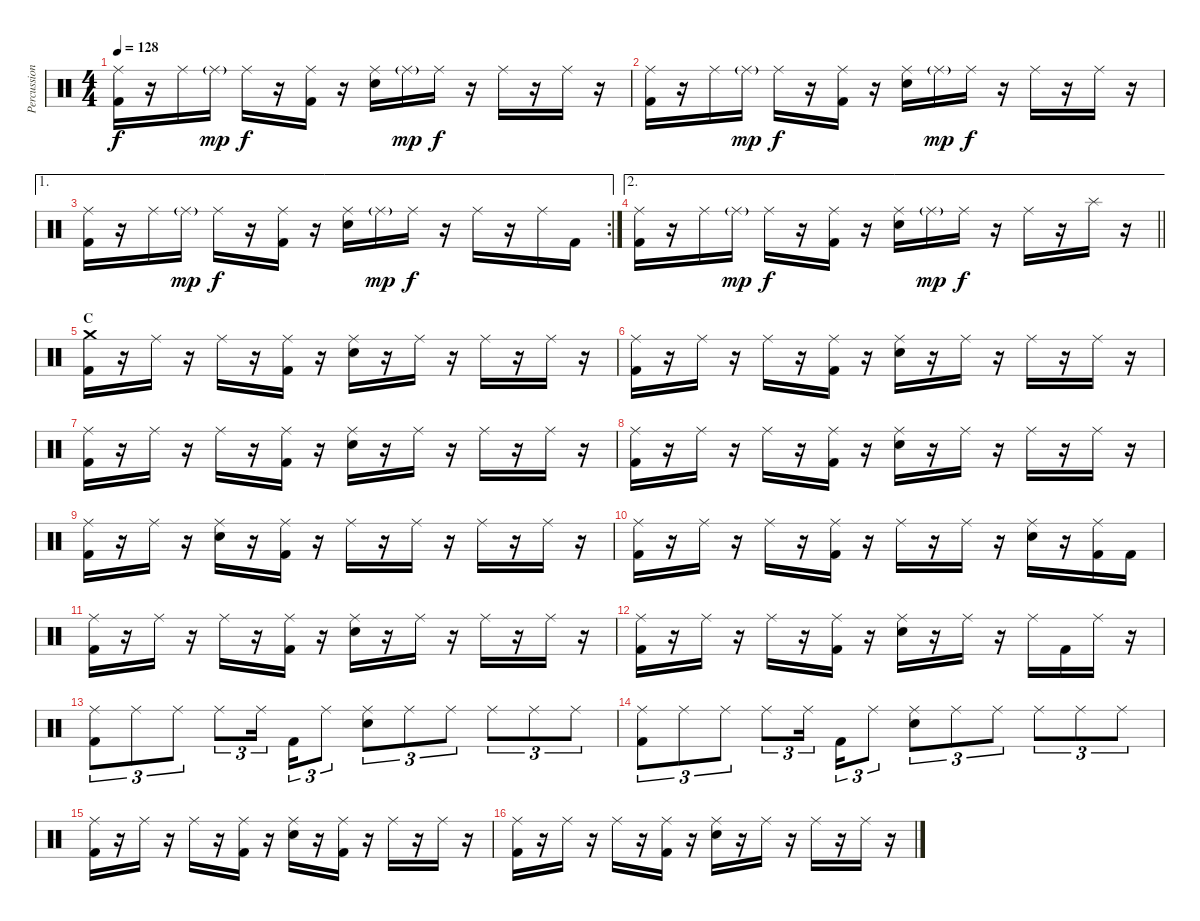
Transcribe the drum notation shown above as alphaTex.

\track ("Percussion" "Percussion") {instrument percussion}
\staff {score}
\articulation defaults
\ts (4 4)
\tempo 128
\clef neutral
\ks c
("Ride (middle)" "Kick (hit) 2").16{dy f} r.16 "Ride (middle)".16 "Ride (middle)"{g}.16{dy mp} "Ride (middle)".16{dy f} r.16 ("Ride (middle)" "Kick (hit) 2").16 r.16 ("Ride (middle)" "Snare (hit) 2").16 "Ride (middle)"{g}.16{dy mp} "Ride (middle)".16{dy f} r.16 "Ride (middle)".16 r.16 "Ride (middle)".16 r.16 |
("Ride (middle)" "Kick (hit) 2").16 r.16 "Ride (middle)".16 "Ride (middle)"{g}.16{dy mp} "Ride (middle)".16{dy f} r.16 ("Ride (middle)" "Kick (hit) 2").16 r.16 ("Ride (middle)" "Snare (hit) 2").16 "Ride (middle)"{g}.16{dy mp} "Ride (middle)".16{dy f} r.16 "Ride (middle)".16 r.16 "Ride (middle)".16 r.16 |
\ae 1
\rc 2
("Ride (middle)" "Kick (hit) 2").16 r.16 "Ride (middle)".16 "Ride (middle)"{g}.16{dy mp} "Ride (middle)".16{dy f} r.16 ("Ride (middle)" "Kick (hit) 2").16 r.16 ("Ride (middle)" "Snare (hit) 2").16 "Ride (middle)"{g}.16{dy mp} "Ride (middle)".16{dy f} r.16 "Ride (middle)".16 r.16 "Ride (middle)".16 "Kick (hit) 2".16 |
\ae 2
\barLineRight lightlight
("Ride (middle)" "Kick (hit) 2").16 r.16 "Ride (middle)".16 "Ride (middle)"{g}.16{dy mp} "Ride (middle)".16{dy f} r.16 ("Ride (middle)" "Kick (hit) 2").16 r.16 ("Ride (middle)" "Snare (hit) 2").16 "Ride (middle)"{g}.16{dy mp} "Ride (middle)".16{dy f} r.16 "Ride (middle)".16 r.16 "Splash (hit)".16 r.16 |
\section ("" "C")
("Crash medium (hit)" "Kick (hit) 2").16 r.16 "Ride (middle)".16 r.16 "Ride (middle)".16 r.16 ("Ride (middle)" "Kick (hit) 2").16 r.16 ("Ride (middle)" "Snare (hit) 2").16 r.16 "Ride (middle)".16 r.16 "Ride (middle)".16 r.16 "Ride (middle)".16 r.16 |
("Ride (middle)" "Kick (hit) 2").16 r.16 "Ride (middle)".16 r.16 "Ride (middle)".16 r.16 ("Ride (middle)" "Kick (hit) 2").16 r.16 ("Ride (middle)" "Snare (hit) 2").16 r.16 "Ride (middle)".16 r.16 "Ride (middle)".16 r.16 "Ride (middle)".16 r.16 |
("Ride (middle)" "Kick (hit) 2").16 r.16 "Ride (middle)".16 r.16 "Ride (middle)".16 r.16 ("Ride (middle)" "Kick (hit) 2").16 r.16 ("Ride (middle)" "Snare (hit) 2").16 r.16 "Ride (middle)".16 r.16 "Ride (middle)".16 r.16 "Ride (middle)".16 r.16 |
("Ride (middle)" "Kick (hit) 2").16 r.16 "Ride (middle)".16 r.16 "Ride (middle)".16 r.16 ("Ride (middle)" "Kick (hit) 2").16 r.16 ("Ride (middle)" "Snare (hit) 2").16 r.16 "Ride (middle)".16 r.16 "Ride (middle)".16 r.16 "Ride (middle)".16 r.16 |
("Ride (middle)" "Kick (hit) 2").16 r.16 "Ride (middle)".16 r.16 ("Ride (middle)" "Snare (hit) 2").16 r.16 ("Ride (middle)" "Kick (hit) 2").16 r.16 "Ride (middle)".16 r.16 "Ride (middle)".16 r.16 "Ride (middle)".16 r.16 "Ride (middle)".16 r.16 |
("Ride (middle)" "Kick (hit) 2").16 r.16 "Ride (middle)".16 r.16 "Ride (middle)".16 r.16 ("Ride (middle)" "Kick (hit) 2").16 r.16 "Ride (middle)".16 r.16 "Ride (middle)".16 r.16 ("Ride (middle)" "Snare (hit) 2").16 r.16 ("Ride (middle)" "Kick (hit) 2").16 "Kick (hit) 2".16 |
("Ride (middle)" "Kick (hit) 2").16 r.16 "Ride (middle)".16 r.16 "Ride (middle)".16 r.16 ("Ride (middle)" "Kick (hit) 2").16 r.16 ("Ride (middle)" "Snare (hit) 2").16 r.16 "Ride (middle)".16 r.16 "Ride (middle)".16 r.16 "Ride (middle)".16 r.16 |
("Ride (middle)" "Kick (hit) 2").16 r.16 "Ride (middle)".16 r.16 "Ride (middle)".16 r.16 ("Ride (middle)" "Kick (hit) 2").16 r.16 ("Ride (middle)" "Snare (hit) 2").16 r.16 "Ride (middle)".16 r.16 "Ride (middle)".16 "Kick (hit) 2".16 "Ride (middle)".16 r.16 |
("Ride (middle)" "Kick (hit) 2").8{tu (3 2)} "Ride (middle)".8{tu (3 2)} "Ride (middle)".8{tu (3 2)} "Ride (middle)".8{tu (3 2)} "Ride (middle)".16{tu (3 2) beam splitsecondary} "Kick (hit) 2".16{tu (3 2)} "Ride (middle)".8{tu (3 2)} ("Ride (middle)" "Snare (hit) 2").8{tu (3 2)} "Ride (middle)".8{tu (3 2)} "Ride (middle)".8{tu (3 2)} "Ride (middle)".8{tu (3 2)} "Ride (middle)".8{tu (3 2)} "Ride (middle)".8{tu (3 2)} |
("Ride (middle)" "Kick (hit) 2").8{tu (3 2)} "Ride (middle)".8{tu (3 2)} "Ride (middle)".8{tu (3 2)} "Ride (middle)".8{tu (3 2)} "Ride (middle)".16{tu (3 2) beam splitsecondary} "Kick (hit) 2".16{tu (3 2)} "Ride (middle)".8{tu (3 2)} ("Ride (middle)" "Snare (hit) 2").8{tu (3 2)} "Ride (middle)".8{tu (3 2)} "Ride (middle)".8{tu (3 2)} "Ride (middle)".8{tu (3 2)} "Ride (middle)".8{tu (3 2)} "Ride (middle)".8{tu (3 2)} |
("Ride (middle)" "Kick (hit) 2").16 r.16 "Ride (middle)".16 r.16 "Ride (middle)".16 r.16 ("Ride (middle)" "Kick (hit) 2").16 r.16 ("Ride (middle)" "Snare (hit) 2").16 r.16 ("Ride (middle)" "Kick (hit) 2").16 r.16 "Ride (middle)".16 r.16 "Ride (middle)".16 r.16 |
("Ride (middle)" "Kick (hit) 2").16 r.16 "Ride (middle)".16 r.16 "Ride (middle)".16 r.16 ("Ride (middle)" "Kick (hit) 2").16 r.16 ("Ride (middle)" "Snare (hit) 2").16 r.16 "Ride (middle)".16 r.16 "Ride (middle)".16 r.16 "Ride (middle)".16 r.16
